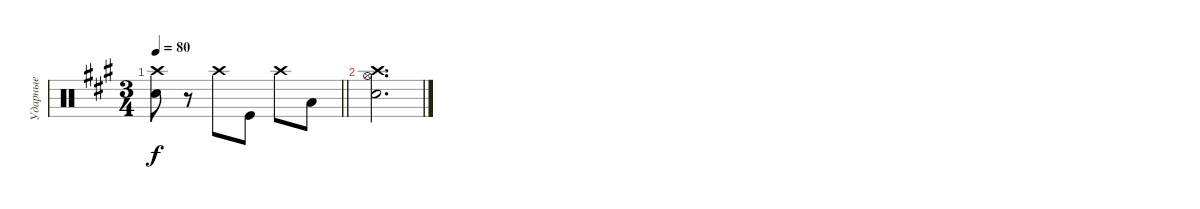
\track ("Ударные" "Ударные") {instrument percussion}
\staff {score}
\articulation defaults
\ts (3 4)
\tempo 80
\clef neutral
\barLineRight lightlight
\ks f#minor
("Snare (hit) 2" "Crash high (hit)").8{dy f} r.8 "Crash high (hit)".8 "Kick (hit)".8 "Crash high (hit)".8 "Low Tom (hit)".8 |
("Snare (hit) 2" "Hi-Hat (open)" "Crash high (hit)").2{d}
